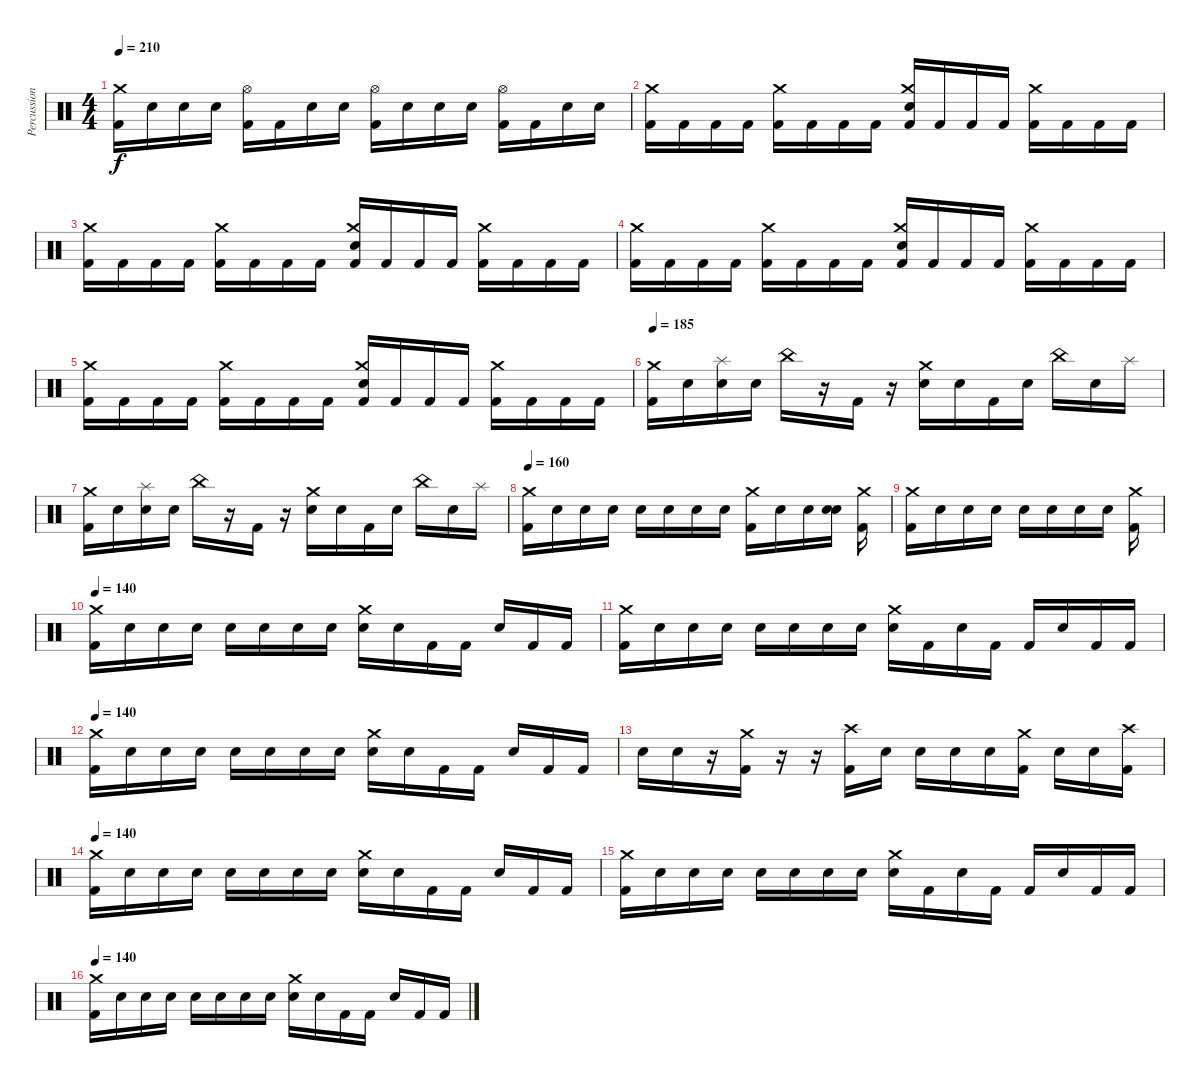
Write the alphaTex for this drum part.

\track ("Percussion" "Percussion") {instrument percussion}
\staff {score}
\articulation defaults
\ts (4 4)
\tempo 210
\clef neutral
\ks c
("Kick (hit) 2" "Crash medium (hit)").16{dy f} "Snare (hit)".16 "Snare (hit) 2".16 "Snare (hit)".16 ("Kick (hit) 2" "Hi-Hat (open)").16 "Kick (hit) 2".16 "Snare (hit) 2".16 "Snare (hit)".16 ("Kick (hit) 2" "Hi-Hat (open)").16 "Snare (hit)".16 "Snare (hit) 2".16 "Snare (hit)".16 ("Kick (hit) 2" "Hi-Hat (open)").16 "Kick (hit) 2".16 "Snare (hit) 2".16 "Snare (hit)".16 |
("Crash medium (hit)" "Kick (hit) 2").16 "Kick (hit) 2".16 "Kick (hit) 2".16 "Kick (hit) 2".16 ("Crash medium (hit)" "Kick (hit) 2").16 "Kick (hit) 2".16 "Kick (hit) 2".16 "Kick (hit) 2".16 ("Snare (hit) 2" "Crash medium (hit)" "Kick (hit) 2").16 "Kick (hit) 2".16 "Kick (hit) 2".16 "Kick (hit) 2".16 ("Crash medium (hit)" "Kick (hit) 2").16 "Kick (hit) 2".16 "Kick (hit) 2".16 "Kick (hit) 2".16 |
("Crash medium (hit)" "Kick (hit) 2").16 "Kick (hit) 2".16 "Kick (hit) 2".16 "Kick (hit) 2".16 ("Crash medium (hit)" "Kick (hit) 2").16 "Kick (hit) 2".16 "Kick (hit) 2".16 "Kick (hit) 2".16 ("Snare (hit) 2" "Crash medium (hit)" "Kick (hit) 2").16 "Kick (hit) 2".16 "Kick (hit) 2".16 "Kick (hit) 2".16 ("Crash medium (hit)" "Kick (hit) 2").16 "Kick (hit) 2".16 "Kick (hit) 2".16 "Kick (hit) 2".16 |
("Crash medium (hit)" "Kick (hit) 2").16 "Kick (hit) 2".16 "Kick (hit) 2".16 "Kick (hit) 2".16 ("Crash medium (hit)" "Kick (hit) 2").16 "Kick (hit) 2".16 "Kick (hit) 2".16 "Kick (hit) 2".16 ("Snare (hit) 2" "Crash medium (hit)" "Kick (hit) 2").16 "Kick (hit) 2".16 "Kick (hit) 2".16 "Kick (hit) 2".16 ("Crash medium (hit)" "Kick (hit) 2").16 "Kick (hit) 2".16 "Kick (hit) 2".16 "Kick (hit) 2".16 |
("Crash medium (hit)" "Kick (hit) 2").16 "Kick (hit) 2".16 "Kick (hit) 2".16 "Kick (hit) 2".16 ("Crash medium (hit)" "Kick (hit) 2").16 "Kick (hit) 2".16 "Kick (hit) 2".16 "Kick (hit) 2".16 ("Snare (hit) 2" "Crash medium (hit)" "Kick (hit) 2").16 "Kick (hit) 2".16 "Kick (hit) 2".16 "Kick (hit) 2".16 ("Crash medium (hit)" "Kick (hit) 2").16 "Kick (hit) 2".16 "Kick (hit) 2".16 "Kick (hit) 2".16 |
\tempo 185
("Crash medium (hit)" "Kick (hit) 2").16 "Snare (hit)".16 ("Splash (hit)" "Snare (hit)").16 "Snare (hit)".16 "China (hit)".16 r.16 "Kick (hit) 2".16 r.16 ("Crash medium (hit)" "Snare (hit) 2").16 "Snare (hit)".16 "Kick (hit) 2".16 "Snare (hit)".16 "China (hit)".16 "Snare (hit)".16 "Splash (hit)".16 |
("Crash medium (hit)" "Kick (hit) 2").16 "Snare (hit)".16 ("Splash (hit)" "Snare (hit)").16 "Snare (hit)".16 "China (hit)".16 r.16 "Kick (hit) 2".16 r.16 ("Crash medium (hit)" "Snare (hit) 2").16 "Snare (hit)".16 "Kick (hit) 2".16 "Snare (hit)".16 "China (hit)".16 "Snare (hit)".16 "Splash (hit)".16 |
\tempo 160
("Crash medium (hit)" "Kick (hit) 2").16 "Snare (hit)".16 "Snare (hit)".16 "Snare (hit)".16 "Snare (hit)".16 "Snare (hit)".16 "Snare (hit)".16 "Snare (hit)".16 ("Crash medium (hit)" "Kick (hit) 2").16 "Snare (hit)".16 "Snare (hit)".16 ("Snare (hit)" "Snare (hit)").16 ("Crash medium (hit)" "Kick (hit) 2").16 |
("Crash medium (hit)" "Kick (hit) 2").16 "Snare (hit)".16 "Snare (hit)".16 "Snare (hit)".16 "Snare (hit)".16 "Snare (hit)".16 "Snare (hit)".16 "Snare (hit)".16 ("Crash medium (hit)" "Kick (hit) 2").16 |
\tempo 140
("Crash medium (hit)" "Kick (hit) 2").16 "Snare (hit)".16 "Snare (hit)".16 "Snare (hit)".16 "Snare (hit)".16 "Snare (hit)".16 "Snare (hit)".16 "Snare (hit)".16 ("Crash medium (hit)" "Snare (hit) 2").16 "Snare (hit)".16 "Kick (hit) 2".16 "Kick (hit) 2".16 "Snare (hit)".16 "Kick (hit) 2".16 "Kick (hit) 2".16 |
("Crash medium (hit)" "Kick (hit) 2").16 "Snare (hit)".16 "Snare (hit)".16 "Snare (hit)".16 "Snare (hit)".16 "Snare (hit)".16 "Snare (hit)".16 "Snare (hit)".16 ("Crash medium (hit)" "Snare (hit) 2").16 "Kick (hit) 2".16 "Snare (hit)".16 "Kick (hit) 2".16 "Kick (hit) 2".16 "Snare (hit)".16 "Kick (hit) 2".16 "Kick (hit) 2".16 |
\tempo 140
("Crash medium (hit)" "Kick (hit) 2").16 "Snare (hit)".16 "Snare (hit)".16 "Snare (hit)".16 "Snare (hit)".16 "Snare (hit)".16 "Snare (hit)".16 "Snare (hit)".16 ("Crash medium (hit)" "Snare (hit) 2").16 "Snare (hit)".16 "Kick (hit) 2".16 "Kick (hit) 2".16 "Snare (hit)".16 "Kick (hit) 2".16 "Kick (hit) 2".16 |
"Snare (hit) 2".16 "Snare (hit)".16 r.16 ("Crash medium (hit)" "Kick (hit) 2").16 r.16 r.16 ("Crash high (hit)" "Kick (hit) 2").16 "Snare (hit)".16 "Snare (hit) 2".16 "Snare (hit)".16 "Snare (hit)".16 ("Crash medium (hit)" "Kick (hit) 2").16 "Snare (hit)".16 "Snare (hit)".16 ("Crash high (hit)" "Kick (hit) 2").16 |
\tempo 140
("Crash medium (hit)" "Kick (hit) 2").16 "Snare (hit)".16 "Snare (hit)".16 "Snare (hit)".16 "Snare (hit)".16 "Snare (hit)".16 "Snare (hit)".16 "Snare (hit)".16 ("Crash medium (hit)" "Snare (hit) 2").16 "Snare (hit)".16 "Kick (hit) 2".16 "Kick (hit) 2".16 "Snare (hit)".16 "Kick (hit) 2".16 "Kick (hit) 2".16 |
("Crash medium (hit)" "Kick (hit) 2").16 "Snare (hit)".16 "Snare (hit)".16 "Snare (hit)".16 "Snare (hit)".16 "Snare (hit)".16 "Snare (hit)".16 "Snare (hit)".16 ("Crash medium (hit)" "Snare (hit) 2").16 "Kick (hit) 2".16 "Snare (hit)".16 "Kick (hit) 2".16 "Kick (hit) 2".16 "Snare (hit)".16 "Kick (hit) 2".16 "Kick (hit) 2".16 |
\tempo 140
("Crash medium (hit)" "Kick (hit) 2").16 "Snare (hit)".16 "Snare (hit)".16 "Snare (hit)".16 "Snare (hit)".16 "Snare (hit)".16 "Snare (hit)".16 "Snare (hit)".16 ("Crash medium (hit)" "Snare (hit) 2").16 "Snare (hit)".16 "Kick (hit) 2".16 "Kick (hit) 2".16 "Snare (hit)".16 "Kick (hit) 2".16 "Kick (hit) 2".16
